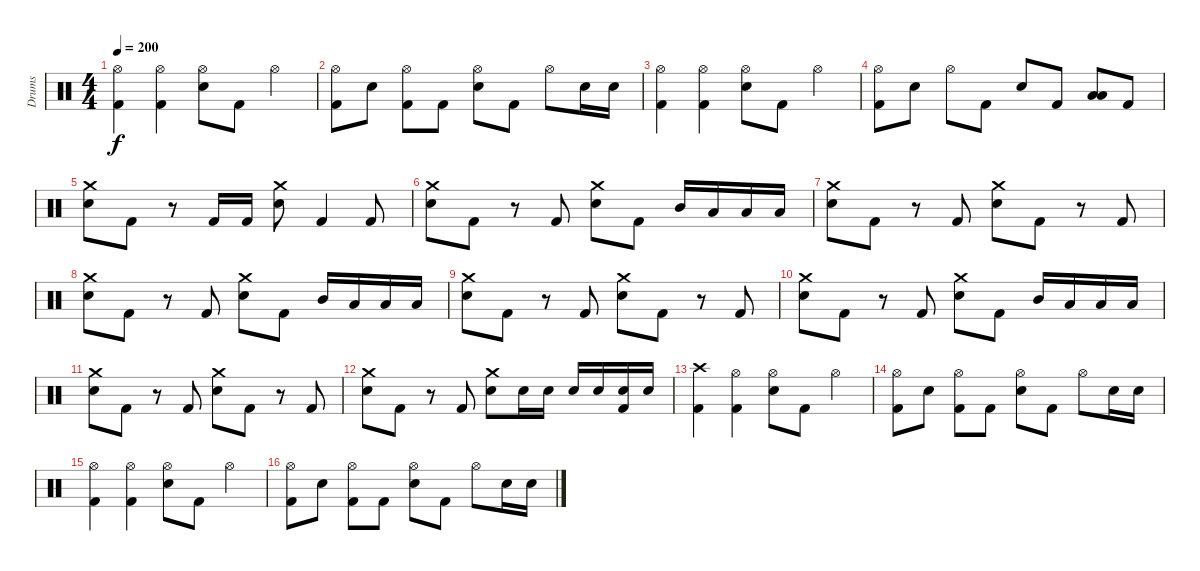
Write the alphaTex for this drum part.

\track ("Drums" "Drums") {instrument percussion}
\staff {score}
\articulation defaults
\ts (4 4)
\tempo 200
\clef neutral
\ks c
("Hi-Hat (open)" "Kick (hit) 2").4{dy f} ("Hi-Hat (open)" "Kick (hit) 2").4 ("Hi-Hat (open)" "Electric Snare (hit)").8 "Kick (hit) 2".8 "Hi-Hat (open)".4 |
("Hi-Hat (open)" "Kick (hit) 2").8 "Electric Snare (hit)".8 ("Hi-Hat (open)" "Kick (hit) 2").8 "Kick (hit) 2".8 ("Hi-Hat (open)" "Electric Snare (hit)").8 "Kick (hit) 2".8 "Hi-Hat (open)".8 "Electric Snare (hit)".16 "Electric Snare (hit)".16 |
("Hi-Hat (open)" "Kick (hit) 2").4 ("Hi-Hat (open)" "Kick (hit) 2").4 ("Hi-Hat (open)" "Electric Snare (hit)").8 "Kick (hit) 2".8 "Hi-Hat (open)".4 |
("Hi-Hat (open)" "Kick (hit) 2").8 "Electric Snare (hit)".8 "Hi-Hat (open)".8 "Kick (hit) 2".8 "Electric Snare (hit)".8 "Kick (hit) 2".8 ("Low Tom (hit)" "Low Floor Tom (hit)").8 "Kick (hit) 2".8 |
("Crash medium (hit)" "Electric Snare (hit)").8 "Kick (hit) 2".8 r.8 "Kick (hit) 2".16 "Kick (hit) 2".16 ("Crash medium (hit)" "Electric Snare (hit)").8 "Kick (hit) 2".4 "Kick (hit) 2".8 |
("Crash medium (hit)" "Electric Snare (hit)").8 "Kick (hit) 2".8 r.8 "Kick (hit) 2".8 ("Crash medium (hit)" "Electric Snare (hit)").8 "Kick (hit) 2".8 "Mid Tom (hit)".16 "Low Tom (hit)".16 "Low Floor Tom (hit)".16 "Low Floor Tom (hit)".16 |
("Crash medium (hit)" "Electric Snare (hit)").8 "Kick (hit) 2".8 r.8 "Kick (hit) 2".8 ("Crash medium (hit)" "Electric Snare (hit)").8 "Kick (hit) 2".8 r.8 "Kick (hit) 2".8 |
("Crash medium (hit)" "Electric Snare (hit)").8 "Kick (hit) 2".8 r.8 "Kick (hit) 2".8 ("Crash medium (hit)" "Electric Snare (hit)").8 "Kick (hit) 2".8 "Mid Tom (hit)".16 "Low Tom (hit)".16 "Low Floor Tom (hit)".16 "Low Floor Tom (hit)".16 |
("Crash medium (hit)" "Electric Snare (hit)").8 "Kick (hit) 2".8 r.8 "Kick (hit) 2".8 ("Crash medium (hit)" "Electric Snare (hit)").8 "Kick (hit) 2".8 r.8 "Kick (hit) 2".8 |
("Crash medium (hit)" "Electric Snare (hit)").8 "Kick (hit) 2".8 r.8 "Kick (hit) 2".8 ("Crash medium (hit)" "Electric Snare (hit)").8 "Kick (hit) 2".8 "Mid Tom (hit)".16 "Low Tom (hit)".16 "Low Floor Tom (hit)".16 "Low Floor Tom (hit)".16 |
("Crash medium (hit)" "Electric Snare (hit)").8 "Kick (hit) 2".8 r.8 "Kick (hit) 2".8 ("Crash medium (hit)" "Electric Snare (hit)").8 "Kick (hit) 2".8 r.8 "Kick (hit) 2".8 |
("Crash medium (hit)" "Electric Snare (hit)").8 "Kick (hit) 2".8 r.8 "Kick (hit) 2".8 ("Crash medium (hit)" "Electric Snare (hit)").8 "Electric Snare (hit)".16 "Electric Snare (hit)".16 "Electric Snare (hit)".16 "Electric Snare (hit)".16 ("Electric Snare (hit)" "Kick (hit) 2").16 "Electric Snare (hit)".16 |
("Crash high (hit)" "Kick (hit) 2").4 ("Hi-Hat (open)" "Kick (hit) 2").4 ("Hi-Hat (open)" "Electric Snare (hit)").8 "Kick (hit) 2".8 "Hi-Hat (open)".4 |
("Hi-Hat (open)" "Kick (hit) 2").8 "Electric Snare (hit)".8 ("Hi-Hat (open)" "Kick (hit) 2").8 "Kick (hit) 2".8 ("Hi-Hat (open)" "Electric Snare (hit)").8 "Kick (hit) 2".8 "Hi-Hat (open)".8 "Electric Snare (hit)".16 "Electric Snare (hit)".16 |
("Hi-Hat (open)" "Kick (hit) 2").4 ("Hi-Hat (open)" "Kick (hit) 2").4 ("Hi-Hat (open)" "Electric Snare (hit)").8 "Kick (hit) 2".8 "Hi-Hat (open)".4 |
("Hi-Hat (open)" "Kick (hit) 2").8 "Electric Snare (hit)".8 ("Hi-Hat (open)" "Kick (hit) 2").8 "Kick (hit) 2".8 ("Hi-Hat (open)" "Electric Snare (hit)").8 "Kick (hit) 2".8 "Hi-Hat (open)".8 "Electric Snare (hit)".16 "Electric Snare (hit)".16
